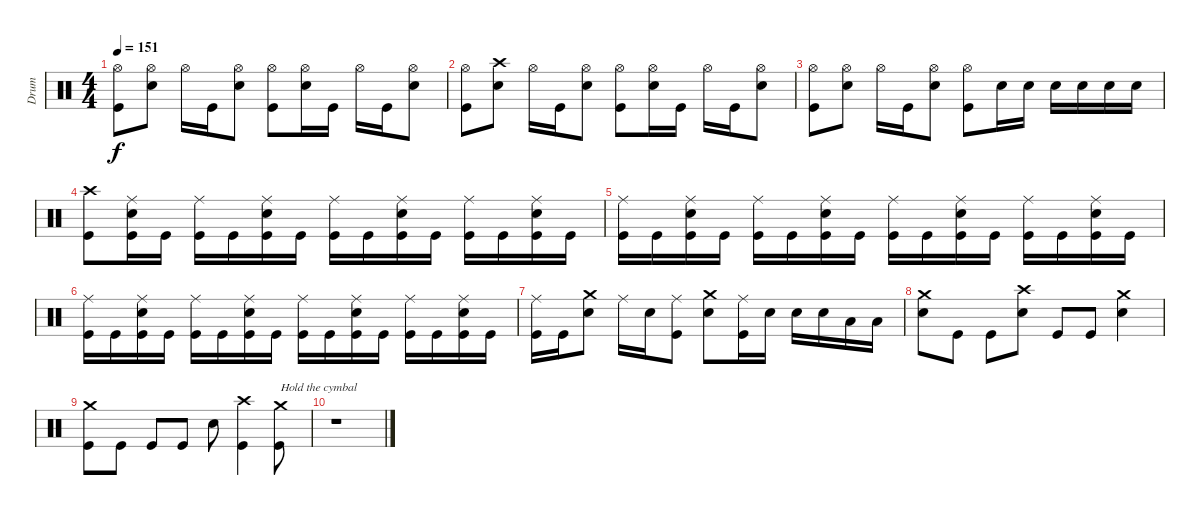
\track ("Drum" "Drum") {instrument percussion}
\staff {score}
\articulation defaults
\ts (4 4)
\tempo 151
\clef neutral
\ks c
("Hi-Hat (open)" "Kick (hit)").8{dy f} ("Hi-Hat (open)" "Snare (hit) 2").8 "Hi-Hat (open)".16 "Kick (hit)".16 ("Hi-Hat (open)" "Snare (hit) 2").8 ("Hi-Hat (open)" "Kick (hit)").8 ("Hi-Hat (open)" "Snare (hit) 2").16 "Kick (hit)".16 "Hi-Hat (open)".16 "Kick (hit)".16 ("Hi-Hat (open)" "Snare (hit) 2").8 |
("Hi-Hat (open)" "Kick (hit)").8 ("Crash high (hit)" "Snare (hit) 2").8 "Hi-Hat (open)".16 "Kick (hit)".16 ("Hi-Hat (open)" "Snare (hit) 2").8 ("Hi-Hat (open)" "Kick (hit)").8 ("Hi-Hat (open)" "Snare (hit) 2").16 "Kick (hit)".16 "Hi-Hat (open)".16 "Kick (hit)".16 ("Hi-Hat (open)" "Snare (hit) 2").8 |
("Hi-Hat (open)" "Kick (hit)").8 ("Hi-Hat (open)" "Snare (hit) 2").8 "Hi-Hat (open)".16 "Kick (hit)".16 ("Hi-Hat (open)" "Snare (hit) 2").8 ("Hi-Hat (open)" "Kick (hit)").8 "Snare (hit) 2".16 "Snare (hit) 2".16 "Snare (hit) 2".16 "Snare (hit) 2".16 "Snare (hit) 2".16 "Snare (hit) 2".16 |
("Crash high (hit)" "Kick (hit)").8 ("Ride (middle)" "Kick (hit)" "Snare (hit) 2").16 "Kick (hit)".16 ("Ride (middle)" "Kick (hit)").16 "Kick (hit)".16 ("Ride (middle)" "Kick (hit)" "Snare (hit) 2").16 "Kick (hit)".16 ("Ride (middle)" "Kick (hit)").16 "Kick (hit)".16 ("Ride (middle)" "Kick (hit)" "Snare (hit) 2").16 "Kick (hit)".16 ("Ride (middle)" "Kick (hit)").16 "Kick (hit)".16 ("Ride (middle)" "Kick (hit)" "Snare (hit) 2").16 "Kick (hit)".16 |
("Ride (middle)" "Kick (hit)").16 "Kick (hit)".16 ("Ride (middle)" "Kick (hit)" "Snare (hit) 2").16 "Kick (hit)".16 ("Ride (middle)" "Kick (hit)").16 "Kick (hit)".16 ("Ride (middle)" "Kick (hit)" "Snare (hit) 2").16 "Kick (hit)".16 ("Ride (middle)" "Kick (hit)").16 "Kick (hit)".16 ("Ride (middle)" "Kick (hit)" "Snare (hit) 2").16 "Kick (hit)".16 ("Ride (middle)" "Kick (hit)").16 "Kick (hit)".16 ("Ride (middle)" "Kick (hit)" "Snare (hit) 2").16 "Kick (hit)".16 |
("Ride (middle)" "Kick (hit)").16 "Kick (hit)".16 ("Ride (middle)" "Kick (hit)" "Snare (hit) 2").16 "Kick (hit)".16 ("Ride (middle)" "Kick (hit)").16 "Kick (hit)".16 ("Ride (middle)" "Kick (hit)" "Snare (hit) 2").16 "Kick (hit)".16 ("Ride (middle)" "Kick (hit)").16 "Kick (hit)".16 ("Ride (middle)" "Kick (hit)" "Snare (hit) 2").16 "Kick (hit)".16 ("Ride (middle)" "Kick (hit)").16 "Kick (hit)".16 ("Ride (middle)" "Kick (hit)" "Snare (hit) 2").16 "Kick (hit)".16 |
("Ride (middle)" "Kick (hit)").16 "Kick (hit)".16 ("Crash medium (hit)" "Snare (hit) 2").8 "Ride (middle)".16 "Snare (hit) 2".16 ("Ride (middle)" "Kick (hit)").8 ("Crash medium (hit)" "Snare (hit) 2").8 ("Ride (middle)" "Kick (hit)").16 "Snare (hit) 2".16 "Snare (hit) 2".16 "Snare (hit) 2".16 "Low Tom (hit)".16 "Low Tom (hit)".16 |
("Crash medium (hit)" "Snare (hit) 2").8 "Kick (hit)".8 "Kick (hit)".8 ("Crash high (hit)" "Snare (hit) 2").8 "Kick (hit)".8 "Kick (hit)".8 ("Crash medium (hit)" "Snare (hit) 2").4 |
("Crash medium (hit)" "Kick (hit)").8 "Kick (hit)".8 "Kick (hit)".8 "Kick (hit)".8 "Snare (hit) 2".8 ("Crash high (hit)" "Kick (hit)").4 ("Crash medium (hit)" "Kick (hit)").8{txt "Hold the cymbal"} |
r.1
